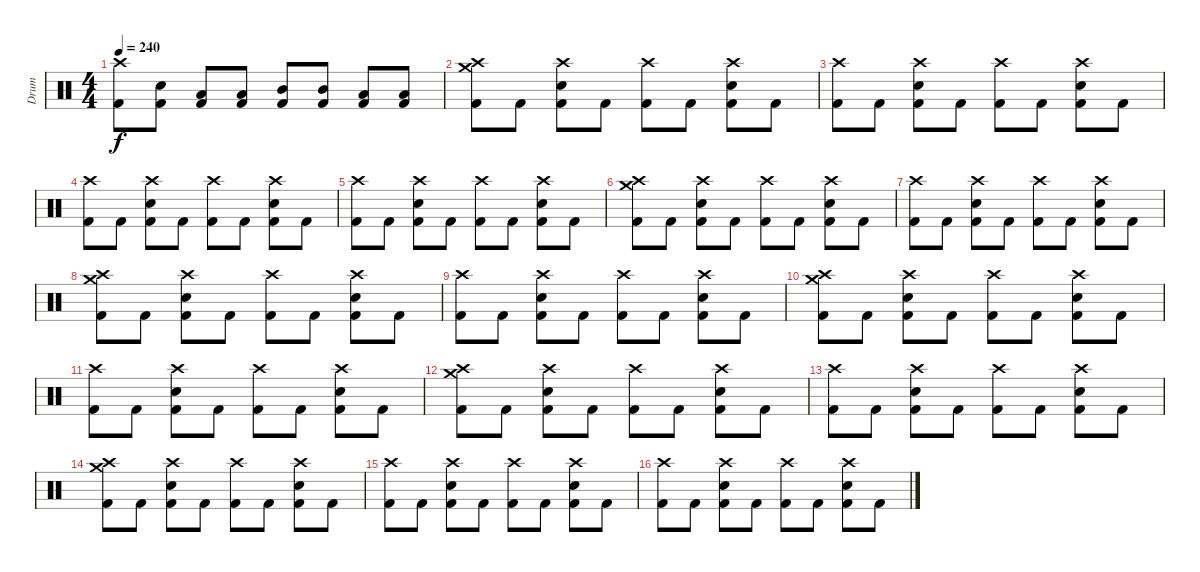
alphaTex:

\track ("Drum" "Drum") {instrument percussion}
\staff {score}
\articulation defaults
\ts (4 4)
\tempo 240
\clef neutral
\ks c
("Crash high (hit)" "Kick (hit) 2").8{dy f} ("Kick (hit) 2" "Electric Snare (hit)").8 ("Kick (hit) 2" "Low Tom (hit)").8 ("Kick (hit) 2" "Low Tom (hit)").8 ("Kick (hit) 2" "Mid Tom (hit)").8 ("Kick (hit) 2" "Mid Tom (hit)").8 ("Kick (hit) 2" "Low Floor Tom (hit)").8 ("Kick (hit) 2" "Low Floor Tom (hit)").8 |
("Crash high (hit)" "Kick (hit) 2" "Crash medium (hit)").8 "Kick (hit) 2".8 ("Crash high (hit)" "Kick (hit) 2" "Electric Snare (hit)").8 "Kick (hit) 2".8 ("Crash high (hit)" "Kick (hit) 2").8 "Kick (hit) 2".8 ("Crash high (hit)" "Kick (hit) 2" "Electric Snare (hit)").8 "Kick (hit) 2".8 |
("Crash high (hit)" "Kick (hit) 2").8 "Kick (hit) 2".8 ("Crash high (hit)" "Kick (hit) 2" "Electric Snare (hit)").8 "Kick (hit) 2".8 ("Crash high (hit)" "Kick (hit) 2").8 "Kick (hit) 2".8 ("Crash high (hit)" "Kick (hit) 2" "Electric Snare (hit)").8 "Kick (hit) 2".8 |
("Crash high (hit)" "Kick (hit) 2").8 "Kick (hit) 2".8 ("Crash high (hit)" "Kick (hit) 2" "Electric Snare (hit)").8 "Kick (hit) 2".8 ("Crash high (hit)" "Kick (hit) 2").8 "Kick (hit) 2".8 ("Crash high (hit)" "Kick (hit) 2" "Electric Snare (hit)").8 "Kick (hit) 2".8 |
("Crash high (hit)" "Kick (hit) 2").8 "Kick (hit) 2".8 ("Crash high (hit)" "Kick (hit) 2" "Electric Snare (hit)").8 "Kick (hit) 2".8 ("Crash high (hit)" "Kick (hit) 2").8 "Kick (hit) 2".8 ("Crash high (hit)" "Kick (hit) 2" "Electric Snare (hit)").8 "Kick (hit) 2".8 |
("Crash high (hit)" "Kick (hit) 2" "Crash medium (hit)").8 "Kick (hit) 2".8 ("Crash high (hit)" "Kick (hit) 2" "Electric Snare (hit)").8 "Kick (hit) 2".8 ("Crash high (hit)" "Kick (hit) 2").8 "Kick (hit) 2".8 ("Crash high (hit)" "Kick (hit) 2" "Electric Snare (hit)").8 "Kick (hit) 2".8 |
("Crash high (hit)" "Kick (hit) 2").8 "Kick (hit) 2".8 ("Crash high (hit)" "Kick (hit) 2" "Electric Snare (hit)").8 "Kick (hit) 2".8 ("Crash high (hit)" "Kick (hit) 2").8 "Kick (hit) 2".8 ("Crash high (hit)" "Kick (hit) 2" "Electric Snare (hit)").8 "Kick (hit) 2".8 |
("Crash high (hit)" "Kick (hit) 2" "Crash medium (hit)").8 "Kick (hit) 2".8 ("Crash high (hit)" "Kick (hit) 2" "Electric Snare (hit)").8 "Kick (hit) 2".8 ("Crash high (hit)" "Kick (hit) 2").8 "Kick (hit) 2".8 ("Crash high (hit)" "Kick (hit) 2" "Electric Snare (hit)").8 "Kick (hit) 2".8 |
("Crash high (hit)" "Kick (hit) 2").8 "Kick (hit) 2".8 ("Crash high (hit)" "Kick (hit) 2" "Electric Snare (hit)").8 "Kick (hit) 2".8 ("Crash high (hit)" "Kick (hit) 2").8 "Kick (hit) 2".8 ("Crash high (hit)" "Kick (hit) 2" "Electric Snare (hit)").8 "Kick (hit) 2".8 |
("Crash high (hit)" "Kick (hit) 2" "Crash medium (hit)").8 "Kick (hit) 2".8 ("Crash high (hit)" "Kick (hit) 2" "Electric Snare (hit)").8 "Kick (hit) 2".8 ("Crash high (hit)" "Kick (hit) 2").8 "Kick (hit) 2".8 ("Crash high (hit)" "Kick (hit) 2" "Electric Snare (hit)").8 "Kick (hit) 2".8 |
("Crash high (hit)" "Kick (hit) 2").8 "Kick (hit) 2".8 ("Crash high (hit)" "Kick (hit) 2" "Electric Snare (hit)").8 "Kick (hit) 2".8 ("Crash high (hit)" "Kick (hit) 2").8 "Kick (hit) 2".8 ("Crash high (hit)" "Kick (hit) 2" "Electric Snare (hit)").8 "Kick (hit) 2".8 |
("Crash high (hit)" "Kick (hit) 2" "Crash medium (hit)").8 "Kick (hit) 2".8 ("Crash high (hit)" "Kick (hit) 2" "Electric Snare (hit)").8 "Kick (hit) 2".8 ("Crash high (hit)" "Kick (hit) 2").8 "Kick (hit) 2".8 ("Crash high (hit)" "Kick (hit) 2" "Electric Snare (hit)").8 "Kick (hit) 2".8 |
("Crash high (hit)" "Kick (hit) 2").8 "Kick (hit) 2".8 ("Crash high (hit)" "Kick (hit) 2" "Electric Snare (hit)").8 "Kick (hit) 2".8 ("Crash high (hit)" "Kick (hit) 2").8 "Kick (hit) 2".8 ("Crash high (hit)" "Kick (hit) 2" "Electric Snare (hit)").8 "Kick (hit) 2".8 |
("Crash high (hit)" "Kick (hit) 2" "Crash medium (hit)").8 "Kick (hit) 2".8 ("Crash high (hit)" "Kick (hit) 2" "Electric Snare (hit)").8 "Kick (hit) 2".8 ("Crash high (hit)" "Kick (hit) 2").8 "Kick (hit) 2".8 ("Crash high (hit)" "Kick (hit) 2" "Electric Snare (hit)").8 "Kick (hit) 2".8 |
("Crash high (hit)" "Kick (hit) 2").8 "Kick (hit) 2".8 ("Crash high (hit)" "Kick (hit) 2" "Electric Snare (hit)").8 "Kick (hit) 2".8 ("Crash high (hit)" "Kick (hit) 2").8 "Kick (hit) 2".8 ("Crash high (hit)" "Kick (hit) 2" "Electric Snare (hit)").8 "Kick (hit) 2".8 |
("Crash high (hit)" "Kick (hit) 2").8 "Kick (hit) 2".8 ("Crash high (hit)" "Kick (hit) 2" "Electric Snare (hit)").8 "Kick (hit) 2".8 ("Crash high (hit)" "Kick (hit) 2").8 "Kick (hit) 2".8 ("Crash high (hit)" "Kick (hit) 2" "Electric Snare (hit)").8 "Kick (hit) 2".8
